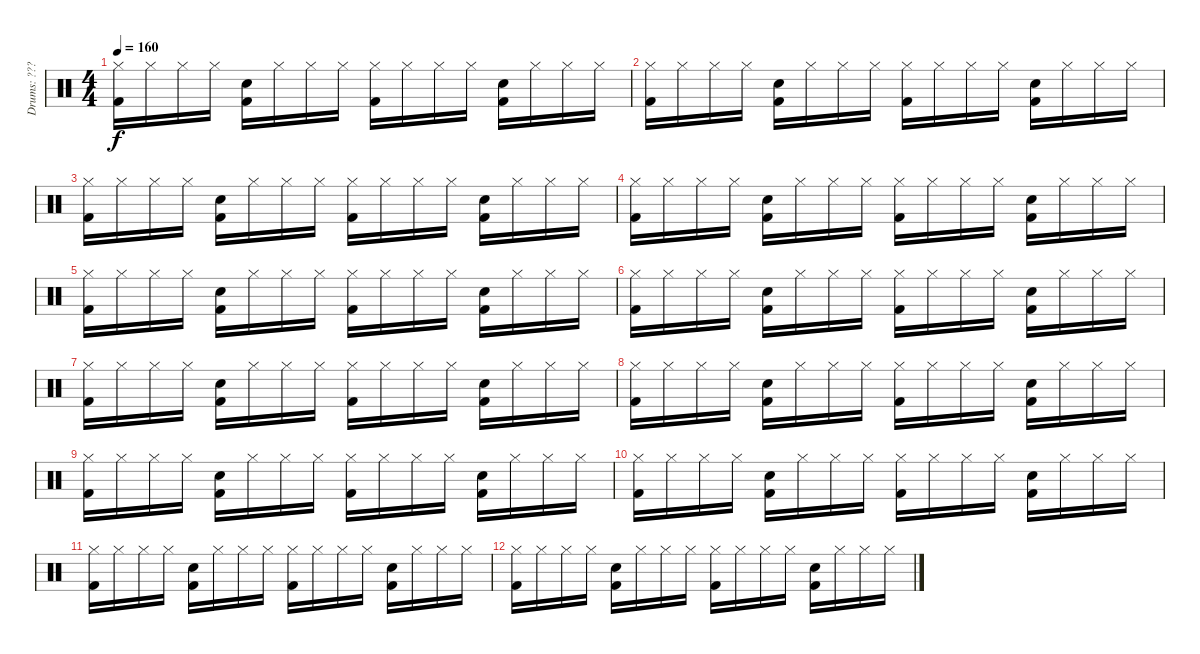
\track ("Drums: ???" "Drums: ???") {instrument percussion}
\staff {score}
\articulation defaults
\ts (4 4)
\tempo 160
\clef neutral
\ks c
("Hi-Hat (closed)" "Kick (hit) 2").16{dy f volume 8} "Hi-Hat (closed)".16 "Hi-Hat (closed)".16 "Hi-Hat (closed)".16 ("Snare (hit) 2" "Kick (hit) 2").16 "Hi-Hat (closed)".16 "Hi-Hat (closed)".16 "Hi-Hat (closed)".16 ("Hi-Hat (closed)" "Kick (hit) 2").16 "Hi-Hat (closed)".16 "Hi-Hat (closed)".16 "Hi-Hat (closed)".16 ("Snare (hit) 2" "Kick (hit) 2").16 "Hi-Hat (closed)".16 "Hi-Hat (closed)".16 "Hi-Hat (closed)".16 |
("Hi-Hat (closed)" "Kick (hit) 2").16 "Hi-Hat (closed)".16 "Hi-Hat (closed)".16 "Hi-Hat (closed)".16 ("Snare (hit) 2" "Kick (hit) 2").16 "Hi-Hat (closed)".16 "Hi-Hat (closed)".16 "Hi-Hat (closed)".16 ("Hi-Hat (closed)" "Kick (hit) 2").16 "Hi-Hat (closed)".16 "Hi-Hat (closed)".16 "Hi-Hat (closed)".16 ("Snare (hit) 2" "Kick (hit) 2").16 "Hi-Hat (closed)".16 "Hi-Hat (closed)".16 "Hi-Hat (closed)".16 |
("Hi-Hat (closed)" "Kick (hit) 2").16 "Hi-Hat (closed)".16 "Hi-Hat (closed)".16 "Hi-Hat (closed)".16 ("Snare (hit) 2" "Kick (hit) 2").16 "Hi-Hat (closed)".16 "Hi-Hat (closed)".16 "Hi-Hat (closed)".16 ("Hi-Hat (closed)" "Kick (hit) 2").16 "Hi-Hat (closed)".16 "Hi-Hat (closed)".16 "Hi-Hat (closed)".16 ("Snare (hit) 2" "Kick (hit) 2").16 "Hi-Hat (closed)".16 "Hi-Hat (closed)".16 "Hi-Hat (closed)".16 |
("Hi-Hat (closed)" "Kick (hit) 2").16 "Hi-Hat (closed)".16 "Hi-Hat (closed)".16 "Hi-Hat (closed)".16 ("Snare (hit) 2" "Kick (hit) 2").16 "Hi-Hat (closed)".16 "Hi-Hat (closed)".16 "Hi-Hat (closed)".16 ("Hi-Hat (closed)" "Kick (hit) 2").16 "Hi-Hat (closed)".16 "Hi-Hat (closed)".16 "Hi-Hat (closed)".16 ("Snare (hit) 2" "Kick (hit) 2").16 "Hi-Hat (closed)".16 "Hi-Hat (closed)".16 "Hi-Hat (closed)".16 |
("Hi-Hat (closed)" "Kick (hit) 2").16{volume 4} "Hi-Hat (closed)".16 "Hi-Hat (closed)".16 "Hi-Hat (closed)".16 ("Snare (hit) 2" "Kick (hit) 2").16 "Hi-Hat (closed)".16 "Hi-Hat (closed)".16 "Hi-Hat (closed)".16 ("Hi-Hat (closed)" "Kick (hit) 2").16 "Hi-Hat (closed)".16 "Hi-Hat (closed)".16 "Hi-Hat (closed)".16 ("Snare (hit) 2" "Kick (hit) 2").16 "Hi-Hat (closed)".16 "Hi-Hat (closed)".16 "Hi-Hat (closed)".16 |
("Hi-Hat (closed)" "Kick (hit) 2").16 "Hi-Hat (closed)".16 "Hi-Hat (closed)".16 "Hi-Hat (closed)".16 ("Snare (hit) 2" "Kick (hit) 2").16 "Hi-Hat (closed)".16 "Hi-Hat (closed)".16 "Hi-Hat (closed)".16 ("Hi-Hat (closed)" "Kick (hit) 2").16 "Hi-Hat (closed)".16 "Hi-Hat (closed)".16 "Hi-Hat (closed)".16 ("Snare (hit) 2" "Kick (hit) 2").16 "Hi-Hat (closed)".16 "Hi-Hat (closed)".16 "Hi-Hat (closed)".16 |
("Hi-Hat (closed)" "Kick (hit) 2").16 "Hi-Hat (closed)".16 "Hi-Hat (closed)".16 "Hi-Hat (closed)".16 ("Snare (hit) 2" "Kick (hit) 2").16 "Hi-Hat (closed)".16 "Hi-Hat (closed)".16 "Hi-Hat (closed)".16 ("Hi-Hat (closed)" "Kick (hit) 2").16 "Hi-Hat (closed)".16 "Hi-Hat (closed)".16 "Hi-Hat (closed)".16 ("Snare (hit) 2" "Kick (hit) 2").16 "Hi-Hat (closed)".16 "Hi-Hat (closed)".16 "Hi-Hat (closed)".16 |
("Hi-Hat (closed)" "Kick (hit) 2").16 "Hi-Hat (closed)".16 "Hi-Hat (closed)".16 "Hi-Hat (closed)".16 ("Snare (hit) 2" "Kick (hit) 2").16 "Hi-Hat (closed)".16 "Hi-Hat (closed)".16 "Hi-Hat (closed)".16 ("Hi-Hat (closed)" "Kick (hit) 2").16 "Hi-Hat (closed)".16 "Hi-Hat (closed)".16 "Hi-Hat (closed)".16 ("Snare (hit) 2" "Kick (hit) 2").16 "Hi-Hat (closed)".16 "Hi-Hat (closed)".16 "Hi-Hat (closed)".16 |
("Hi-Hat (closed)" "Kick (hit) 2").16{volume 0} "Hi-Hat (closed)".16 "Hi-Hat (closed)".16 "Hi-Hat (closed)".16 ("Snare (hit) 2" "Kick (hit) 2").16 "Hi-Hat (closed)".16 "Hi-Hat (closed)".16 "Hi-Hat (closed)".16 ("Hi-Hat (closed)" "Kick (hit) 2").16 "Hi-Hat (closed)".16 "Hi-Hat (closed)".16 "Hi-Hat (closed)".16 ("Snare (hit) 2" "Kick (hit) 2").16 "Hi-Hat (closed)".16 "Hi-Hat (closed)".16 "Hi-Hat (closed)".16 |
("Hi-Hat (closed)" "Kick (hit) 2").16 "Hi-Hat (closed)".16 "Hi-Hat (closed)".16 "Hi-Hat (closed)".16 ("Snare (hit) 2" "Kick (hit) 2").16 "Hi-Hat (closed)".16 "Hi-Hat (closed)".16 "Hi-Hat (closed)".16 ("Hi-Hat (closed)" "Kick (hit) 2").16 "Hi-Hat (closed)".16 "Hi-Hat (closed)".16 "Hi-Hat (closed)".16 ("Snare (hit) 2" "Kick (hit) 2").16 "Hi-Hat (closed)".16 "Hi-Hat (closed)".16 "Hi-Hat (closed)".16 |
("Hi-Hat (closed)" "Kick (hit) 2").16 "Hi-Hat (closed)".16 "Hi-Hat (closed)".16 "Hi-Hat (closed)".16 ("Snare (hit) 2" "Kick (hit) 2").16 "Hi-Hat (closed)".16 "Hi-Hat (closed)".16 "Hi-Hat (closed)".16 ("Hi-Hat (closed)" "Kick (hit) 2").16 "Hi-Hat (closed)".16 "Hi-Hat (closed)".16 "Hi-Hat (closed)".16 ("Snare (hit) 2" "Kick (hit) 2").16 "Hi-Hat (closed)".16 "Hi-Hat (closed)".16 "Hi-Hat (closed)".16 |
("Hi-Hat (closed)" "Kick (hit) 2").16 "Hi-Hat (closed)".16 "Hi-Hat (closed)".16 "Hi-Hat (closed)".16 ("Snare (hit) 2" "Kick (hit) 2").16 "Hi-Hat (closed)".16 "Hi-Hat (closed)".16 "Hi-Hat (closed)".16 ("Hi-Hat (closed)" "Kick (hit) 2").16 "Hi-Hat (closed)".16 "Hi-Hat (closed)".16 "Hi-Hat (closed)".16 ("Snare (hit) 2" "Kick (hit) 2").16 "Hi-Hat (closed)".16 "Hi-Hat (closed)".16 "Hi-Hat (closed)".16
